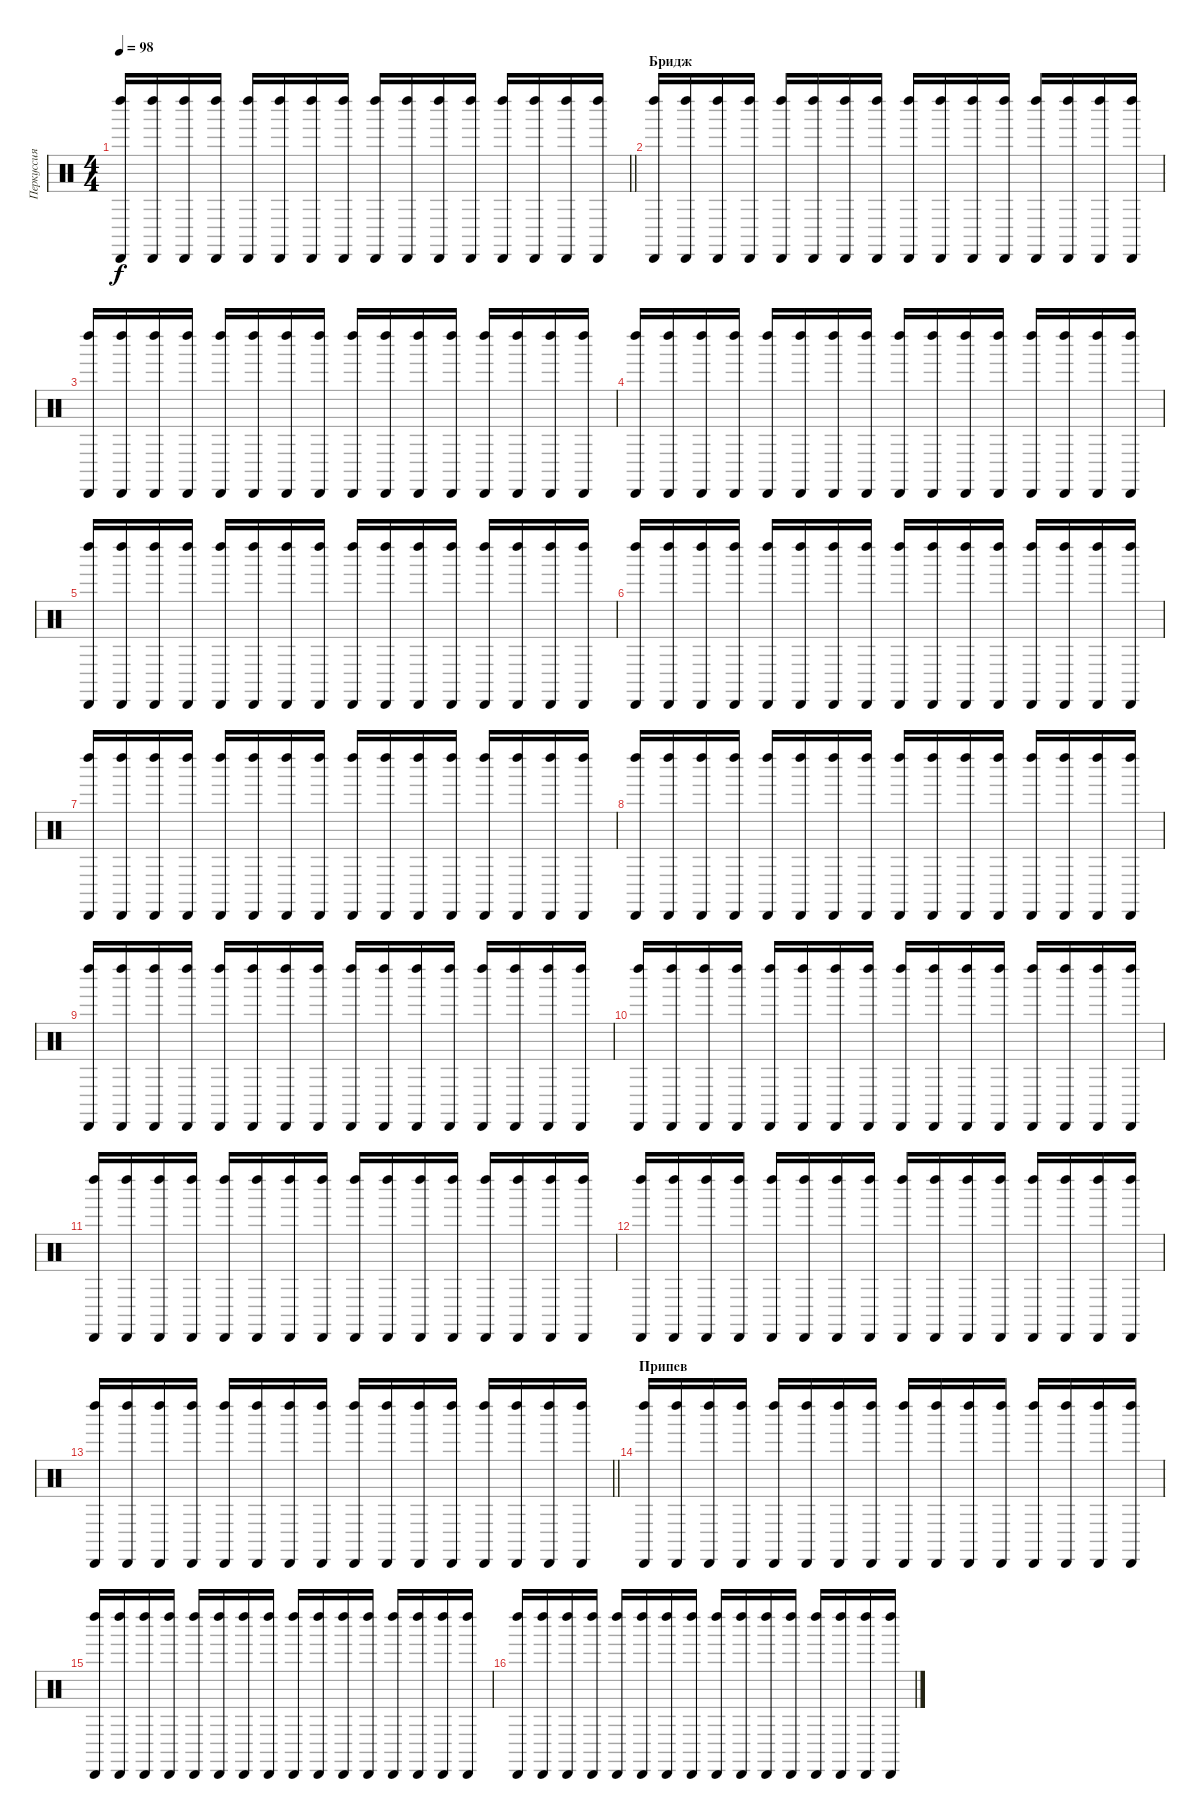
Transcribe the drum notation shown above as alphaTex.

\track ("Перкуссия" "Перкуссия") {instrument percussion}
\staff {score}
\articulation defaults
\ts (4 4)
\tempo 98
\clef neutral
\barLineRight lightlight
\ks c
("Cabasa (hit)" "Left Maraca (hit)").16{dy f} ("Cabasa (hit)" "Left Maraca (hit)").16 ("Cabasa (hit)" "Left Maraca (hit)").16 ("Cabasa (hit)" "Left Maraca (hit)").16 ("Cabasa (hit)" "Left Maraca (hit)").16 ("Cabasa (hit)" "Left Maraca (hit)").16 ("Cabasa (hit)" "Left Maraca (hit)").16 ("Cabasa (hit)" "Left Maraca (hit)").16 ("Cabasa (hit)" "Left Maraca (hit)").16 ("Cabasa (hit)" "Left Maraca (hit)").16 ("Cabasa (hit)" "Left Maraca (hit)").16 ("Cabasa (hit)" "Left Maraca (hit)").16 ("Cabasa (hit)" "Left Maraca (hit)").16 ("Cabasa (hit)" "Left Maraca (hit)").16 ("Cabasa (hit)" "Left Maraca (hit)").16 ("Cabasa (hit)" "Left Maraca (hit)").16 |
\section ("" "Бридж")
("Cabasa (hit)" "Left Maraca (hit)").16 ("Cabasa (hit)" "Left Maraca (hit)").16 ("Cabasa (hit)" "Left Maraca (hit)").16 ("Cabasa (hit)" "Left Maraca (hit)").16 ("Cabasa (hit)" "Left Maraca (hit)").16 ("Cabasa (hit)" "Left Maraca (hit)").16 ("Cabasa (hit)" "Left Maraca (hit)").16 ("Cabasa (hit)" "Left Maraca (hit)").16 ("Cabasa (hit)" "Left Maraca (hit)").16 ("Cabasa (hit)" "Left Maraca (hit)").16 ("Cabasa (hit)" "Left Maraca (hit)").16 ("Cabasa (hit)" "Left Maraca (hit)").16 ("Cabasa (hit)" "Left Maraca (hit)").16 ("Cabasa (hit)" "Left Maraca (hit)").16 ("Cabasa (hit)" "Left Maraca (hit)").16 ("Cabasa (hit)" "Left Maraca (hit)").16 |
("Cabasa (hit)" "Left Maraca (hit)").16 ("Cabasa (hit)" "Left Maraca (hit)").16 ("Cabasa (hit)" "Left Maraca (hit)").16 ("Cabasa (hit)" "Left Maraca (hit)").16 ("Cabasa (hit)" "Left Maraca (hit)").16 ("Cabasa (hit)" "Left Maraca (hit)").16 ("Cabasa (hit)" "Left Maraca (hit)").16 ("Cabasa (hit)" "Left Maraca (hit)").16 ("Cabasa (hit)" "Left Maraca (hit)").16 ("Cabasa (hit)" "Left Maraca (hit)").16 ("Cabasa (hit)" "Left Maraca (hit)").16 ("Cabasa (hit)" "Left Maraca (hit)").16 ("Cabasa (hit)" "Left Maraca (hit)").16 ("Cabasa (hit)" "Left Maraca (hit)").16 ("Cabasa (hit)" "Left Maraca (hit)").16 ("Cabasa (hit)" "Left Maraca (hit)").16 |
("Cabasa (hit)" "Left Maraca (hit)").16 ("Cabasa (hit)" "Left Maraca (hit)").16 ("Cabasa (hit)" "Left Maraca (hit)").16 ("Cabasa (hit)" "Left Maraca (hit)").16 ("Cabasa (hit)" "Left Maraca (hit)").16 ("Cabasa (hit)" "Left Maraca (hit)").16 ("Cabasa (hit)" "Left Maraca (hit)").16 ("Cabasa (hit)" "Left Maraca (hit)").16 ("Cabasa (hit)" "Left Maraca (hit)").16 ("Cabasa (hit)" "Left Maraca (hit)").16 ("Cabasa (hit)" "Left Maraca (hit)").16 ("Cabasa (hit)" "Left Maraca (hit)").16 ("Cabasa (hit)" "Left Maraca (hit)").16 ("Cabasa (hit)" "Left Maraca (hit)").16 ("Cabasa (hit)" "Left Maraca (hit)").16 ("Cabasa (hit)" "Left Maraca (hit)").16 |
("Cabasa (hit)" "Left Maraca (hit)").16 ("Cabasa (hit)" "Left Maraca (hit)").16 ("Cabasa (hit)" "Left Maraca (hit)").16 ("Cabasa (hit)" "Left Maraca (hit)").16 ("Cabasa (hit)" "Left Maraca (hit)").16 ("Cabasa (hit)" "Left Maraca (hit)").16 ("Cabasa (hit)" "Left Maraca (hit)").16 ("Cabasa (hit)" "Left Maraca (hit)").16 ("Cabasa (hit)" "Left Maraca (hit)").16 ("Cabasa (hit)" "Left Maraca (hit)").16 ("Cabasa (hit)" "Left Maraca (hit)").16 ("Cabasa (hit)" "Left Maraca (hit)").16 ("Cabasa (hit)" "Left Maraca (hit)").16 ("Cabasa (hit)" "Left Maraca (hit)").16 ("Cabasa (hit)" "Left Maraca (hit)").16 ("Cabasa (hit)" "Left Maraca (hit)").16 |
("Cabasa (hit)" "Left Maraca (hit)").16 ("Cabasa (hit)" "Left Maraca (hit)").16 ("Cabasa (hit)" "Left Maraca (hit)").16 ("Cabasa (hit)" "Left Maraca (hit)").16 ("Cabasa (hit)" "Left Maraca (hit)").16 ("Cabasa (hit)" "Left Maraca (hit)").16 ("Cabasa (hit)" "Left Maraca (hit)").16 ("Cabasa (hit)" "Left Maraca (hit)").16 ("Cabasa (hit)" "Left Maraca (hit)").16 ("Cabasa (hit)" "Left Maraca (hit)").16 ("Cabasa (hit)" "Left Maraca (hit)").16 ("Cabasa (hit)" "Left Maraca (hit)").16 ("Cabasa (hit)" "Left Maraca (hit)").16 ("Cabasa (hit)" "Left Maraca (hit)").16 ("Cabasa (hit)" "Left Maraca (hit)").16 ("Cabasa (hit)" "Left Maraca (hit)").16 |
("Cabasa (hit)" "Left Maraca (hit)").16 ("Cabasa (hit)" "Left Maraca (hit)").16 ("Cabasa (hit)" "Left Maraca (hit)").16 ("Cabasa (hit)" "Left Maraca (hit)").16 ("Cabasa (hit)" "Left Maraca (hit)").16 ("Cabasa (hit)" "Left Maraca (hit)").16 ("Cabasa (hit)" "Left Maraca (hit)").16 ("Cabasa (hit)" "Left Maraca (hit)").16 ("Cabasa (hit)" "Left Maraca (hit)").16 ("Cabasa (hit)" "Left Maraca (hit)").16 ("Cabasa (hit)" "Left Maraca (hit)").16 ("Cabasa (hit)" "Left Maraca (hit)").16 ("Cabasa (hit)" "Left Maraca (hit)").16 ("Cabasa (hit)" "Left Maraca (hit)").16 ("Cabasa (hit)" "Left Maraca (hit)").16 ("Cabasa (hit)" "Left Maraca (hit)").16 |
("Cabasa (hit)" "Left Maraca (hit)").16 ("Cabasa (hit)" "Left Maraca (hit)").16 ("Cabasa (hit)" "Left Maraca (hit)").16 ("Cabasa (hit)" "Left Maraca (hit)").16 ("Cabasa (hit)" "Left Maraca (hit)").16 ("Cabasa (hit)" "Left Maraca (hit)").16 ("Cabasa (hit)" "Left Maraca (hit)").16 ("Cabasa (hit)" "Left Maraca (hit)").16 ("Cabasa (hit)" "Left Maraca (hit)").16 ("Cabasa (hit)" "Left Maraca (hit)").16 ("Cabasa (hit)" "Left Maraca (hit)").16 ("Cabasa (hit)" "Left Maraca (hit)").16 ("Cabasa (hit)" "Left Maraca (hit)").16 ("Cabasa (hit)" "Left Maraca (hit)").16 ("Cabasa (hit)" "Left Maraca (hit)").16 ("Cabasa (hit)" "Left Maraca (hit)").16 |
("Cabasa (hit)" "Left Maraca (hit)").16 ("Cabasa (hit)" "Left Maraca (hit)").16 ("Cabasa (hit)" "Left Maraca (hit)").16 ("Cabasa (hit)" "Left Maraca (hit)").16 ("Cabasa (hit)" "Left Maraca (hit)").16 ("Cabasa (hit)" "Left Maraca (hit)").16 ("Cabasa (hit)" "Left Maraca (hit)").16 ("Cabasa (hit)" "Left Maraca (hit)").16 ("Cabasa (hit)" "Left Maraca (hit)").16 ("Cabasa (hit)" "Left Maraca (hit)").16 ("Cabasa (hit)" "Left Maraca (hit)").16 ("Cabasa (hit)" "Left Maraca (hit)").16 ("Cabasa (hit)" "Left Maraca (hit)").16 ("Cabasa (hit)" "Left Maraca (hit)").16 ("Cabasa (hit)" "Left Maraca (hit)").16 ("Cabasa (hit)" "Left Maraca (hit)").16 |
("Cabasa (hit)" "Left Maraca (hit)").16 ("Cabasa (hit)" "Left Maraca (hit)").16 ("Cabasa (hit)" "Left Maraca (hit)").16 ("Cabasa (hit)" "Left Maraca (hit)").16 ("Cabasa (hit)" "Left Maraca (hit)").16 ("Cabasa (hit)" "Left Maraca (hit)").16 ("Cabasa (hit)" "Left Maraca (hit)").16 ("Cabasa (hit)" "Left Maraca (hit)").16 ("Cabasa (hit)" "Left Maraca (hit)").16 ("Cabasa (hit)" "Left Maraca (hit)").16 ("Cabasa (hit)" "Left Maraca (hit)").16 ("Cabasa (hit)" "Left Maraca (hit)").16 ("Cabasa (hit)" "Left Maraca (hit)").16 ("Cabasa (hit)" "Left Maraca (hit)").16 ("Cabasa (hit)" "Left Maraca (hit)").16 ("Cabasa (hit)" "Left Maraca (hit)").16 |
("Cabasa (hit)" "Left Maraca (hit)").16 ("Cabasa (hit)" "Left Maraca (hit)").16 ("Cabasa (hit)" "Left Maraca (hit)").16 ("Cabasa (hit)" "Left Maraca (hit)").16 ("Cabasa (hit)" "Left Maraca (hit)").16 ("Cabasa (hit)" "Left Maraca (hit)").16 ("Cabasa (hit)" "Left Maraca (hit)").16 ("Cabasa (hit)" "Left Maraca (hit)").16 ("Cabasa (hit)" "Left Maraca (hit)").16 ("Cabasa (hit)" "Left Maraca (hit)").16 ("Cabasa (hit)" "Left Maraca (hit)").16 ("Cabasa (hit)" "Left Maraca (hit)").16 ("Cabasa (hit)" "Left Maraca (hit)").16 ("Cabasa (hit)" "Left Maraca (hit)").16 ("Cabasa (hit)" "Left Maraca (hit)").16 ("Cabasa (hit)" "Left Maraca (hit)").16 |
("Cabasa (hit)" "Left Maraca (hit)").16 ("Cabasa (hit)" "Left Maraca (hit)").16 ("Cabasa (hit)" "Left Maraca (hit)").16 ("Cabasa (hit)" "Left Maraca (hit)").16 ("Cabasa (hit)" "Left Maraca (hit)").16 ("Cabasa (hit)" "Left Maraca (hit)").16 ("Cabasa (hit)" "Left Maraca (hit)").16 ("Cabasa (hit)" "Left Maraca (hit)").16 ("Cabasa (hit)" "Left Maraca (hit)").16 ("Cabasa (hit)" "Left Maraca (hit)").16 ("Cabasa (hit)" "Left Maraca (hit)").16 ("Cabasa (hit)" "Left Maraca (hit)").16 ("Cabasa (hit)" "Left Maraca (hit)").16 ("Cabasa (hit)" "Left Maraca (hit)").16 ("Cabasa (hit)" "Left Maraca (hit)").16 ("Cabasa (hit)" "Left Maraca (hit)").16 |
\barLineRight lightlight
("Cabasa (hit)" "Left Maraca (hit)").16 ("Cabasa (hit)" "Left Maraca (hit)").16 ("Cabasa (hit)" "Left Maraca (hit)").16 ("Cabasa (hit)" "Left Maraca (hit)").16 ("Cabasa (hit)" "Left Maraca (hit)").16 ("Cabasa (hit)" "Left Maraca (hit)").16 ("Cabasa (hit)" "Left Maraca (hit)").16 ("Cabasa (hit)" "Left Maraca (hit)").16 ("Cabasa (hit)" "Left Maraca (hit)").16 ("Cabasa (hit)" "Left Maraca (hit)").16 ("Cabasa (hit)" "Left Maraca (hit)").16 ("Cabasa (hit)" "Left Maraca (hit)").16 ("Cabasa (hit)" "Left Maraca (hit)").16 ("Cabasa (hit)" "Left Maraca (hit)").16 ("Cabasa (hit)" "Left Maraca (hit)").16 ("Cabasa (hit)" "Left Maraca (hit)").16 |
\section ("" "Припев")
("Cabasa (hit)" "Left Maraca (hit)").16 ("Cabasa (hit)" "Left Maraca (hit)").16 ("Cabasa (hit)" "Left Maraca (hit)").16 ("Cabasa (hit)" "Left Maraca (hit)").16 ("Cabasa (hit)" "Left Maraca (hit)").16 ("Cabasa (hit)" "Left Maraca (hit)").16 ("Cabasa (hit)" "Left Maraca (hit)").16 ("Cabasa (hit)" "Left Maraca (hit)").16 ("Cabasa (hit)" "Left Maraca (hit)").16 ("Cabasa (hit)" "Left Maraca (hit)").16 ("Cabasa (hit)" "Left Maraca (hit)").16 ("Cabasa (hit)" "Left Maraca (hit)").16 ("Cabasa (hit)" "Left Maraca (hit)").16 ("Cabasa (hit)" "Left Maraca (hit)").16 ("Cabasa (hit)" "Left Maraca (hit)").16 ("Cabasa (hit)" "Left Maraca (hit)").16 |
("Cabasa (hit)" "Left Maraca (hit)").16 ("Cabasa (hit)" "Left Maraca (hit)").16 ("Cabasa (hit)" "Left Maraca (hit)").16 ("Cabasa (hit)" "Left Maraca (hit)").16 ("Cabasa (hit)" "Left Maraca (hit)").16 ("Cabasa (hit)" "Left Maraca (hit)").16 ("Cabasa (hit)" "Left Maraca (hit)").16 ("Cabasa (hit)" "Left Maraca (hit)").16 ("Cabasa (hit)" "Left Maraca (hit)").16 ("Cabasa (hit)" "Left Maraca (hit)").16 ("Cabasa (hit)" "Left Maraca (hit)").16 ("Cabasa (hit)" "Left Maraca (hit)").16 ("Cabasa (hit)" "Left Maraca (hit)").16 ("Cabasa (hit)" "Left Maraca (hit)").16 ("Cabasa (hit)" "Left Maraca (hit)").16 ("Cabasa (hit)" "Left Maraca (hit)").16 |
("Cabasa (hit)" "Left Maraca (hit)").16 ("Cabasa (hit)" "Left Maraca (hit)").16 ("Cabasa (hit)" "Left Maraca (hit)").16 ("Cabasa (hit)" "Left Maraca (hit)").16 ("Cabasa (hit)" "Left Maraca (hit)").16 ("Cabasa (hit)" "Left Maraca (hit)").16 ("Cabasa (hit)" "Left Maraca (hit)").16 ("Cabasa (hit)" "Left Maraca (hit)").16 ("Cabasa (hit)" "Left Maraca (hit)").16 ("Cabasa (hit)" "Left Maraca (hit)").16 ("Cabasa (hit)" "Left Maraca (hit)").16 ("Cabasa (hit)" "Left Maraca (hit)").16 ("Cabasa (hit)" "Left Maraca (hit)").16 ("Cabasa (hit)" "Left Maraca (hit)").16 ("Cabasa (hit)" "Left Maraca (hit)").16 ("Cabasa (hit)" "Left Maraca (hit)").16
